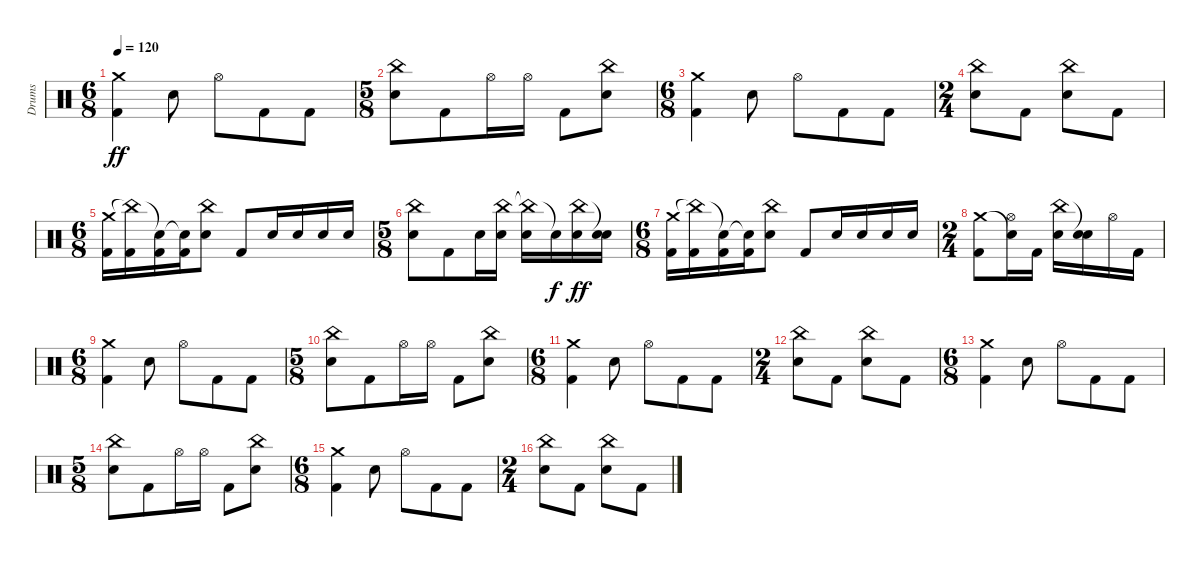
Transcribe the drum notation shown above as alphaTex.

\track ("Drums" "Drums") {instrument percussion}
\staff {score}
\articulation defaults
\ts (6 8)
\tempo 120
\clef neutral
\ks c
("Crash medium (hit)" "Kick (hit) 2").4{dy ff} "Snare (hit) 2".8 "Hi-Hat (open)".8 "Kick (hit) 2".8 "Kick (hit) 2".8 |
\ts (5 8)
("China (hit)" "Snare (hit) 2").8 "Kick (hit) 2".8 "Hi-Hat (open)".16 "Hi-Hat (open)".16 "Kick (hit) 2".8 ("China (hit)" "Snare (hit) 2").8 |
\ts (6 8)
("Crash medium (hit)" "Kick (hit) 2").4 "Snare (hit) 2".8 "Hi-Hat (open)".8 "Kick (hit) 2".8 "Kick (hit) 2".8 |
\ts (2 4)
("China (hit)" "Snare (hit) 2").8 "Kick (hit) 2".8 ("China (hit)" "Snare (hit) 2").8 "Kick (hit) 2".8 |
\ts (6 8)
("Crash medium (hit)" "Kick (hit) 2").16 ("China (hit)"{t} "Kick (hit) 2").16 ("Snare (hit)"{t} "Kick (hit) 2").16 ("Snare (hit)"{t} "Kick (hit) 2").16 ("China (hit)" "Snare (hit) 2").8 "Kick (hit) 2".8 "Snare (hit) 2".16 "Snare (hit) 2".16 "Snare (hit) 2".16 "Snare (hit) 2".16 |
\ts (5 8)
("China (hit)" "Snare (hit) 2").8 "Kick (hit) 2".8 "Snare (hit) 2".16 ("China (hit)" "Snare (hit) 2").16 ("China (hit)"{t} "Snare (hit) 2").16 "Snare (hit)"{t}.16{dy f} ("China (hit)" "Snare (hit) 2").16{dy ff} ("Snare (hit)"{t} "Snare (hit) 2").16 |
\ts (6 8)
("Crash medium (hit)" "Kick (hit) 2").16 ("China (hit)"{t} "Kick (hit) 2").16 ("Snare (hit)"{t} "Kick (hit) 2").16 ("Snare (hit)"{t} "Kick (hit) 2").16 ("China (hit)" "Snare (hit) 2").8 "Kick (hit) 2".8 "Snare (hit) 2".16 "Snare (hit) 2".16 "Snare (hit) 2".16 "Snare (hit) 2".16 |
\ts (2 4)
("Crash medium (hit)" "Kick (hit) 2").8 ("Snare (hit)"{t} "Hi-Hat (open)").16 "Kick (hit) 2".16 ("China (hit)" "Snare (hit) 2").16 ("Snare (hit)"{t} "Snare (hit) 2").16 "Hi-Hat (open)".16 "Kick (hit) 2".16 |
\ts (6 8)
("Crash medium (hit)" "Kick (hit) 2").4 "Snare (hit) 2".8 "Hi-Hat (open)".8 "Kick (hit) 2".8 "Kick (hit) 2".8 |
\ts (5 8)
("China (hit)" "Snare (hit) 2").8 "Kick (hit) 2".8 "Hi-Hat (open)".16 "Hi-Hat (open)".16 "Kick (hit) 2".8 ("China (hit)" "Snare (hit) 2").8 |
\ts (6 8)
("Crash medium (hit)" "Kick (hit) 2").4 "Snare (hit) 2".8 "Hi-Hat (open)".8 "Kick (hit) 2".8 "Kick (hit) 2".8 |
\ts (2 4)
("China (hit)" "Snare (hit) 2").8 "Kick (hit) 2".8 ("China (hit)" "Snare (hit) 2").8 "Kick (hit) 2".8 |
\ts (6 8)
("Crash medium (hit)" "Kick (hit) 2").4 "Snare (hit) 2".8 "Hi-Hat (open)".8 "Kick (hit) 2".8 "Kick (hit) 2".8 |
\ts (5 8)
("China (hit)" "Snare (hit) 2").8 "Kick (hit) 2".8 "Hi-Hat (open)".16 "Hi-Hat (open)".16 "Kick (hit) 2".8 ("China (hit)" "Snare (hit) 2").8 |
\ts (6 8)
("Crash medium (hit)" "Kick (hit) 2").4 "Snare (hit) 2".8 "Hi-Hat (open)".8 "Kick (hit) 2".8 "Kick (hit) 2".8 |
\ts (2 4)
("China (hit)" "Snare (hit) 2").8 "Kick (hit) 2".8 ("China (hit)" "Snare (hit) 2").8 "Kick (hit) 2".8
